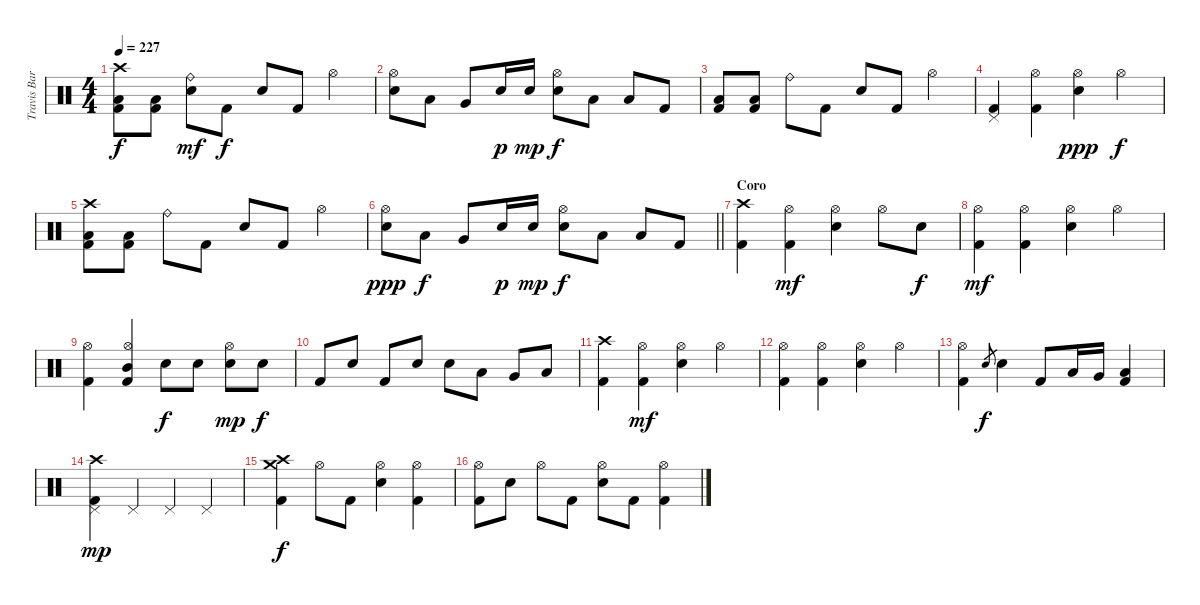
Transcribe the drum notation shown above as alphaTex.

\track ("Travis Barker - Drum" "Travis Bar") {instrument percussion}
\staff {score}
\articulation defaults
\ts (4 4)
\tempo 227
\clef neutral
\ks c
("Crash high (hit)" "Low Floor Tom (hit)" "Kick (hit) 2").8{dy f} ("Low Floor Tom (hit)" "Kick (hit) 2").8 ("Ride (bell)" "Electric Snare (hit)").8{dy mf} "Kick (hit) 2".8{dy f} "Electric Snare (hit)".8 "Kick (hit) 2".8 "Hi-Hat (open)".4 |
("Hi-Hat (open)" "Electric Snare (hit)").8 "Low Tom (hit)".8 "Very Low Tom (hit)".8 "Electric Snare (hit)".16{dy p} "Electric Snare (hit)".16{dy mp} ("Electric Snare (hit)" "Hi-Hat (open)").8{dy f} "Low Tom (hit)".8 "Low Floor Tom (hit)".8 "Kick (hit) 2".8 |
("Low Floor Tom (hit)" "Kick (hit) 2").8 ("Low Floor Tom (hit)" "Kick (hit) 2").8 "Ride (bell)".8 "Kick (hit) 2".8 "Electric Snare (hit)".8 "Kick (hit) 2".8 "Hi-Hat (open)".4 |
("Pedal Hi-Hat (hit)" "Kick (hit) 2").4 ("Hi-Hat (open)" "Kick (hit) 2").4 ("Hi-Hat (open)" "Electric Snare (hit)").4{dy ppp} "Hi-Hat (open)".4{dy f} |
("Crash high (hit)" "Low Floor Tom (hit)" "Kick (hit) 2").8 ("Low Floor Tom (hit)" "Kick (hit) 2").8 "Ride (bell)".8 "Kick (hit) 2".8 "Electric Snare (hit)".8 "Kick (hit) 2".8 "Hi-Hat (open)".4 |
\barLineRight lightlight
("Hi-Hat (open)" "Electric Snare (hit)").8{dy ppp} "Low Tom (hit)".8{dy f} "Very Low Tom (hit)".8 "Electric Snare (hit)".16{dy p} "Electric Snare (hit)".16{dy mp} ("Hi-Hat (open)" "Electric Snare (hit)").8{dy f} "Low Tom (hit)".8 "Low Floor Tom (hit)".8 "Kick (hit) 2".8 |
\section ("" "Coro")
("Crash high (hit)" "Kick (hit) 2").4 ("Hi-Hat (open)" "Kick (hit) 2").4{dy mf} ("Hi-Hat (open)" "Electric Snare (hit)").4 "Hi-Hat (open)".8 "Electric Snare (hit)".8{dy f} |
("Hi-Hat (open)" "Kick (hit) 2").4{dy mf} ("Hi-Hat (open)" "Kick (hit) 2").4 ("Hi-Hat (open)" "Electric Snare (hit)").4 "Hi-Hat (open)".4 |
("Hi-Hat (open)" "Kick (hit) 2").4 ("Hi-Hat (open)" "Mid Tom (hit)" "Kick (hit) 2").4 "Electric Snare (hit)".8{dy f} "Electric Snare (hit)".8 ("Hi-Hat (open)" "Electric Snare (hit)").8{dy mp} "Electric Snare (hit)".8{dy f} |
"Kick (hit) 2".8 "Electric Snare (hit)".8 "Kick (hit) 2".8 "Electric Snare (hit)".8 "Electric Snare (hit)".8 "Low Tom (hit)".8 "Very Low Tom (hit)".8 "Low Floor Tom (hit)".8 |
("Crash high (hit)" "Kick (hit) 2").4 ("Hi-Hat (open)" "Kick (hit) 2").4{dy mf} ("Hi-Hat (open)" "Electric Snare (hit)").4 "Hi-Hat (open)".4 |
("Hi-Hat (open)" "Kick (hit) 2").4 ("Hi-Hat (open)" "Kick (hit) 2").4 ("Hi-Hat (open)" "Electric Snare (hit)").4 "Hi-Hat (open)".4 |
("Hi-Hat (open)" "Kick (hit) 2").4 "Electric Snare (hit)".8{gr dy f} "Electric Snare (hit)".4 "Kick (hit) 2".8 "Low Tom (hit)".16 "Very Low Tom (hit)".16 ("Low Floor Tom (hit)" "Kick (hit) 2").4 |
("Crash high (hit)" "Kick (hit) 2" "Pedal Hi-Hat (hit)").4{dy mp} "Pedal Hi-Hat (hit)".4 "Pedal Hi-Hat (hit)".4 "Pedal Hi-Hat (hit)".4 |
("Crash medium (hit)" "Crash high (hit)" "Kick (hit) 2").4{dy f} "Hi-Hat (open)".8 "Kick (hit) 2".8 ("Hi-Hat (open)" "Electric Snare (hit)").4 ("Hi-Hat (open)" "Kick (hit) 2").4 |
("Hi-Hat (open)" "Kick (hit) 2").8 "Electric Snare (hit)".8 "Hi-Hat (open)".8 "Kick (hit) 2".8 ("Hi-Hat (open)" "Electric Snare (hit)").8 "Kick (hit) 2".8 ("Hi-Hat (open)" "Kick (hit) 2").4
